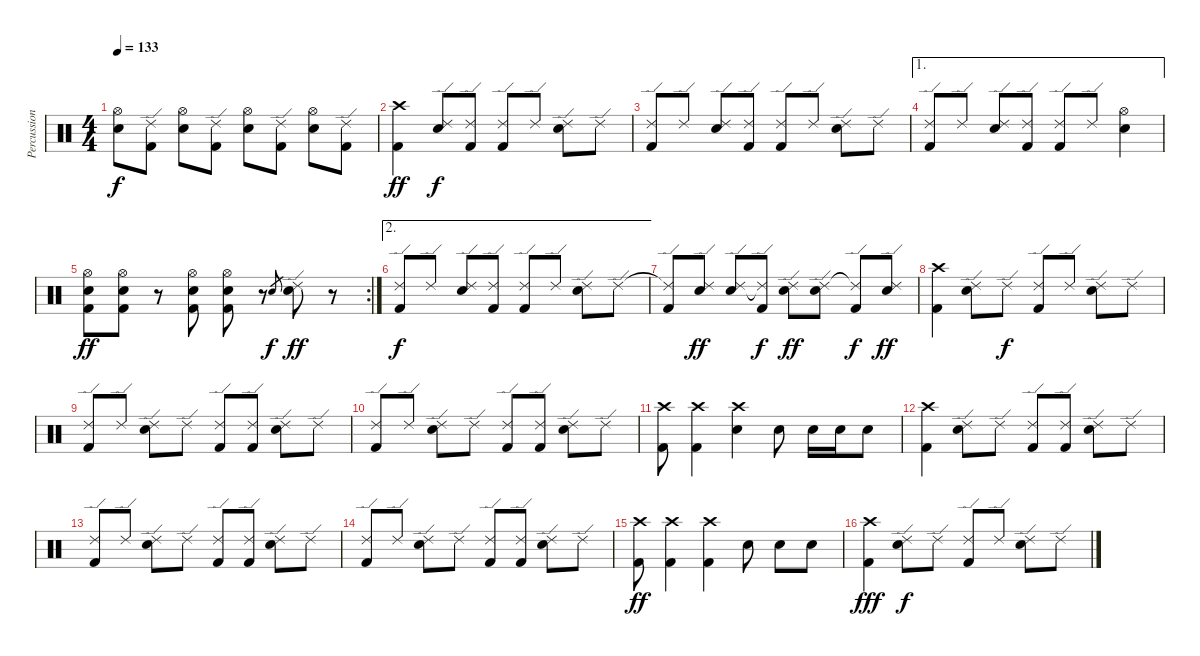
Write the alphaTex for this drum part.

\track ("Percussion" "Percussion") {instrument percussion}
\staff {score}
\articulation defaults
\ts (4 4)
\tempo 133
\clef neutral
\ks c
("Hi-Hat (open)" "Snare (hit) 2").8{dy f} ("Ride (edge) 2" "Kick (hit) 2").8 ("Hi-Hat (open)" "Snare (hit) 2").8 ("Ride (edge) 2" "Kick (hit) 2").8 ("Hi-Hat (open)" "Snare (hit) 2").8 ("Ride (edge) 2" "Kick (hit) 2").8 ("Hi-Hat (open)" "Snare (hit) 2").8 ("Ride (edge) 2" "Kick (hit) 2").8 |
("Crash high (hit)" "Kick (hit) 2").4{dy ff} ("Ride (edge) 2" "Snare (hit) 2").8{dy f} ("Ride (edge) 2" "Kick (hit) 2").8 ("Ride (edge) 2" "Kick (hit) 2").8 "Ride (edge) 2".8 ("Ride (edge) 2" "Snare (hit) 2").8 "Ride (edge) 2".8 |
("Ride (edge) 2" "Kick (hit) 2").8 "Ride (edge) 2".8 ("Ride (edge) 2" "Snare (hit) 2").8 ("Ride (edge) 2" "Kick (hit) 2").8 ("Ride (edge) 2" "Kick (hit) 2").8 "Ride (edge) 2".8 ("Ride (edge) 2" "Snare (hit) 2").8 "Ride (edge) 2".8 |
\ae 1
("Ride (edge) 2" "Kick (hit) 2").8 "Ride (edge) 2".8 ("Ride (edge) 2" "Snare (hit) 2").8 ("Ride (edge) 2" "Kick (hit) 2").8 ("Ride (edge) 2" "Kick (hit) 2").8 "Ride (edge) 2".8 ("Hi-Hat (open)" "Electric Snare (hit)").4 |
\rc 2
("Hi-Hat (open)" "Snare (hit) 2" "Kick (hit) 2").8{dy ff} ("Hi-Hat (open)" "Snare (hit) 2" "Kick (hit) 2").8 r.8 ("Hi-Hat (open)" "Snare (hit) 2" "Kick (hit) 2").8 ("Hi-Hat (open)" "Snare (hit) 2" "Kick (hit) 2").8 r.8 "Electric Snare (hit)".8{gr dy f} ("Ride (edge) 2" "Electric Snare (hit)").8{dy ff} r.8 |
\ae 2
("Ride (edge) 2" "Kick (hit) 2").8{dy f} "Ride (edge) 2".8 ("Ride (edge) 2" "Snare (hit) 2").8 ("Ride (edge) 2" "Kick (hit) 2").8 ("Ride (edge) 2" "Kick (hit) 2").8 "Ride (edge) 2".8 ("Ride (edge) 2" "Snare (hit) 2").8 "Ride (edge) 2".8 |
("Ride (edge) 2"{t} "Kick (hit) 2").8 ("Ride (edge) 2" "Electric Snare (hit)").8{dy ff} ("Ride (edge) 2" "Electric Snare (hit)").8 ("Ride (edge) 2"{t} "Kick (hit) 2").8{dy f} ("Ride (edge) 2" "Electric Snare (hit)").8{dy ff} ("Ride (edge) 2" "Electric Snare (hit)").8 ("Ride (edge) 2"{t} "Kick (hit) 2").8{dy f} ("Ride (edge) 2" "Electric Snare (hit)").8{dy ff} |
("Crash high (hit)" "Kick (hit) 2").4 ("Ride (edge) 2" "Snare (hit) 2").8 "Ride (edge) 2".8{dy f} ("Ride (edge) 2" "Kick (hit) 2").8 "Ride (edge) 2".8 ("Ride (edge) 2" "Snare (hit) 2").8 "Ride (edge) 2".8 |
("Ride (edge) 2" "Kick (hit) 2").8 "Ride (edge) 2".8 ("Ride (edge) 2" "Snare (hit) 2").8 "Ride (edge) 2".8 ("Ride (edge) 2" "Kick (hit) 2").8 ("Ride (edge) 2" "Kick (hit) 2").8 ("Ride (edge) 2" "Snare (hit) 2").8 "Ride (edge) 2".8 |
("Ride (edge) 2" "Kick (hit) 2").8 "Ride (edge) 2".8 ("Ride (edge) 2" "Snare (hit) 2").8 "Ride (edge) 2".8 ("Ride (edge) 2" "Kick (hit) 2").8 ("Ride (edge) 2" "Kick (hit) 2").8 ("Ride (edge) 2" "Snare (hit) 2").8 "Ride (edge) 2".8 |
("Crash high (hit)" "Kick (hit) 2").8 ("Crash high (hit)" "Kick (hit) 2").4 ("Crash high (hit)" "Snare (hit) 2").4 "Electric Snare (hit)".8 "Electric Snare (hit)".16 "Electric Snare (hit)".16 "Electric Snare (hit)".8 |
("Crash high (hit)" "Kick (hit) 2").4 ("Ride (edge) 2" "Snare (hit) 2").8 "Ride (edge) 2".8 ("Ride (edge) 2" "Kick (hit) 2").8 ("Ride (edge) 2" "Kick (hit) 2").8 ("Ride (edge) 2" "Snare (hit) 2").8 "Ride (edge) 2".8 |
("Ride (edge) 2" "Kick (hit) 2").8 "Ride (edge) 2".8 ("Ride (edge) 2" "Snare (hit) 2").8 "Ride (edge) 2".8 ("Ride (edge) 2" "Kick (hit) 2").8 ("Ride (edge) 2" "Kick (hit) 2").8 ("Ride (edge) 2" "Snare (hit) 2").8 "Ride (edge) 2".8 |
("Ride (edge) 2" "Kick (hit) 2").8 "Ride (edge) 2".8 ("Ride (edge) 2" "Snare (hit) 2").8 "Ride (edge) 2".8 ("Ride (edge) 2" "Kick (hit) 2").8 ("Ride (edge) 2" "Kick (hit) 2").8 ("Ride (edge) 2" "Snare (hit) 2").8 "Ride (edge) 2".8 |
("Crash high (hit)" "Kick (hit) 2").8{dy ff} ("Crash high (hit)" "Kick (hit) 2").4 ("Crash high (hit)" "Kick (hit) 2").4 "Snare (hit) 2".8 "Snare (hit) 2".8 "Snare (hit) 2".8 |
("Crash high (hit)" "Kick (hit) 2").4{dy fff} ("Ride (edge) 2" "Snare (hit) 2").8{dy f} "Ride (edge) 2".8 ("Ride (edge) 2" "Kick (hit) 2").8 "Ride (edge) 2".8 ("Ride (edge) 2" "Snare (hit) 2").8 "Ride (edge) 2".8
